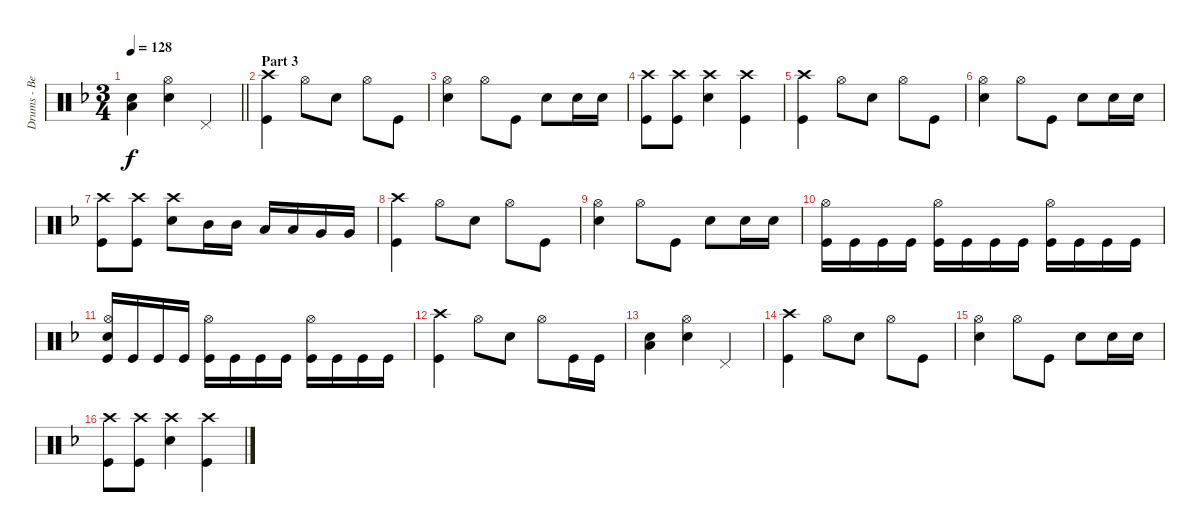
\track ("Drums - Ben Johnston" "Drums - Be") {instrument percussion}
\staff {score}
\articulation defaults
\ts (3 4)
\tempo 128
\clef neutral
\barLineRight lightlight
\ks dminor
("Low Floor Tom (hit)" "Snare (hit) 2").4{dy f} ("Hi-Hat (open)" "Snare (hit) 2").4 "Pedal Hi-Hat (hit)".4 |
\section ("" "Part 3")
("Crash high (hit)" "Kick (hit)").4 "Hi-Hat (open)".8 "Snare (hit) 2".8 "Hi-Hat (open)".8 "Kick (hit)".8 |
("Hi-Hat (open)" "Snare (hit) 2").4 "Hi-Hat (open)".8 "Kick (hit)".8 "Snare (hit) 2".8 "Snare (hit) 2".16 "Snare (hit) 2".16 |
("Crash high (hit)" "Kick (hit)").8 ("Crash high (hit)" "Kick (hit)").8 ("Crash high (hit)" "Snare (hit) 2").4 ("Crash high (hit)" "Kick (hit)").4 |
("Crash high (hit)" "Kick (hit)").4 "Hi-Hat (open)".8 "Snare (hit) 2".8 "Hi-Hat (open)".8 "Kick (hit)".8 |
("Hi-Hat (open)" "Snare (hit) 2").4 "Hi-Hat (open)".8 "Kick (hit)".8 "Snare (hit) 2".8 "Snare (hit) 2".16 "Snare (hit) 2".16 |
("Crash high (hit)" "Kick (hit)").8 ("Crash high (hit)" "Kick (hit)").8 ("Crash high (hit)" "Snare (hit) 2").8 "Mid Tom (hit)".16 "Mid Tom (hit)".16 "Low Tom (hit)".16 "Low Tom (hit)".16 "Very Low Tom (hit)".16 "Very Low Tom (hit)".16 |
("Crash high (hit)" "Kick (hit)").4 "Hi-Hat (open)".8 "Snare (hit) 2".8 "Hi-Hat (open)".8 "Kick (hit)".8 |
("Hi-Hat (open)" "Snare (hit) 2").4 "Hi-Hat (open)".8 "Kick (hit)".8 "Snare (hit) 2".8 "Snare (hit) 2".16 "Snare (hit) 2".16 |
("Hi-Hat (open)" "Kick (hit)").16 "Kick (hit)".16 "Kick (hit)".16 "Kick (hit)".16 ("Hi-Hat (open)" "Kick (hit)").16 "Kick (hit)".16 "Kick (hit)".16 "Kick (hit)".16 ("Hi-Hat (open)" "Kick (hit)").16 "Kick (hit)".16 "Kick (hit)".16 "Kick (hit)".16 |
("Hi-Hat (open)" "Snare (hit) 2" "Kick (hit)").16 "Kick (hit)".16 "Kick (hit)".16 "Kick (hit)".16 ("Hi-Hat (open)" "Kick (hit)").16 "Kick (hit)".16 "Kick (hit)".16 "Kick (hit)".16 ("Hi-Hat (open)" "Kick (hit)").16 "Kick (hit)".16 "Kick (hit)".16 "Kick (hit)".16 |
("Crash high (hit)" "Kick (hit)").4 "Hi-Hat (open)".8 "Snare (hit) 2".8 "Hi-Hat (open)".8 "Kick (hit)".16 "Kick (hit)".16 |
("Low Floor Tom (hit)" "Snare (hit) 2").4 ("Hi-Hat (open)" "Snare (hit) 2").4 "Pedal Hi-Hat (hit)".4 |
("Crash high (hit)" "Kick (hit)").4 "Hi-Hat (open)".8 "Snare (hit) 2".8 "Hi-Hat (open)".8 "Kick (hit)".8 |
("Hi-Hat (open)" "Snare (hit) 2").4 "Hi-Hat (open)".8 "Kick (hit)".8 "Snare (hit) 2".8 "Snare (hit) 2".16 "Snare (hit) 2".16 |
("Crash high (hit)" "Kick (hit)").8 ("Crash high (hit)" "Kick (hit)").8 ("Crash high (hit)" "Snare (hit) 2").4 ("Crash high (hit)" "Kick (hit)").4
